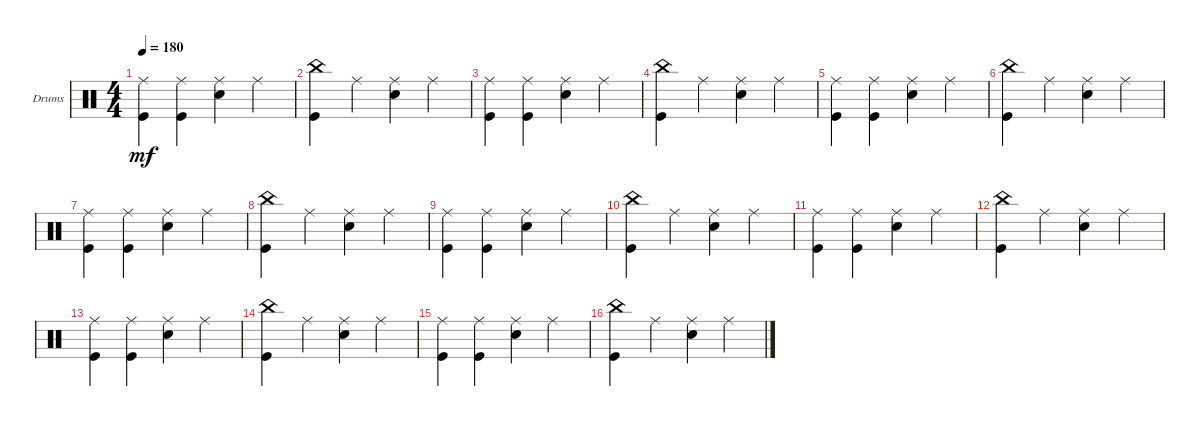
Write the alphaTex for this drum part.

\defaultSystemsLayout 4
\bracketExtendMode groupsimilarinstruments
\firstSystemTrackNameOrientation horizontal
\otherSystemsTrackNameOrientation horizontal
\track ("Drumkit" "Drums") {instrument percussion}
\staff {score}
\articulation defaults
\ts (4 4)
\tempo 180
\clef neutral
\ks c
("Ride (middle)" "Kick (hit)").4{dy mf} ("Ride (middle)" "Kick (hit)").4 ("Ride (middle)" "Snare (hit) 2").4 "Ride (middle)".4 |
("Kick (hit)" "China (hit)").4 "Ride (middle)".4 ("Ride (middle)" "Snare (hit) 2").4 "Ride (middle)".4 |
("Ride (middle)" "Kick (hit)").4 ("Ride (middle)" "Kick (hit)").4 ("Ride (middle)" "Snare (hit) 2").4 "Ride (middle)".4 |
("Kick (hit)" "China (hit)").4 "Ride (middle)".4 ("Ride (middle)" "Snare (hit) 2").4 "Ride (middle)".4 |
("Ride (middle)" "Kick (hit)").4 ("Ride (middle)" "Kick (hit)").4 ("Ride (middle)" "Snare (hit) 2").4 "Ride (middle)".4 |
("Kick (hit)" "China (hit)").4 "Ride (middle)".4 ("Ride (middle)" "Snare (hit) 2").4 "Ride (middle)".4 |
("Ride (middle)" "Kick (hit)").4 ("Ride (middle)" "Kick (hit)").4 ("Ride (middle)" "Snare (hit) 2").4 "Ride (middle)".4 |
("Kick (hit)" "China (hit)").4 "Ride (middle)".4 ("Ride (middle)" "Snare (hit) 2").4 "Ride (middle)".4 |
("Ride (middle)" "Kick (hit)").4 ("Ride (middle)" "Kick (hit)").4 ("Ride (middle)" "Snare (hit) 2").4 "Ride (middle)".4 |
("Kick (hit)" "China (hit)").4 "Ride (middle)".4 ("Ride (middle)" "Snare (hit) 2").4 "Ride (middle)".4 |
("Ride (middle)" "Kick (hit)").4 ("Ride (middle)" "Kick (hit)").4 ("Ride (middle)" "Snare (hit) 2").4 "Ride (middle)".4 |
("Kick (hit)" "China (hit)").4 "Ride (middle)".4 ("Ride (middle)" "Snare (hit) 2").4 "Ride (middle)".4 |
("Ride (middle)" "Kick (hit)").4 ("Ride (middle)" "Kick (hit)").4 ("Ride (middle)" "Snare (hit) 2").4 "Ride (middle)".4 |
("Kick (hit)" "China (hit)").4 "Ride (middle)".4 ("Ride (middle)" "Snare (hit) 2").4 "Ride (middle)".4 |
("Ride (middle)" "Kick (hit)").4 ("Ride (middle)" "Kick (hit)").4 ("Ride (middle)" "Snare (hit) 2").4 "Ride (middle)".4 |
("Kick (hit)" "China (hit)").4 "Ride (middle)".4 ("Ride (middle)" "Snare (hit) 2").4 "Ride (middle)".4
